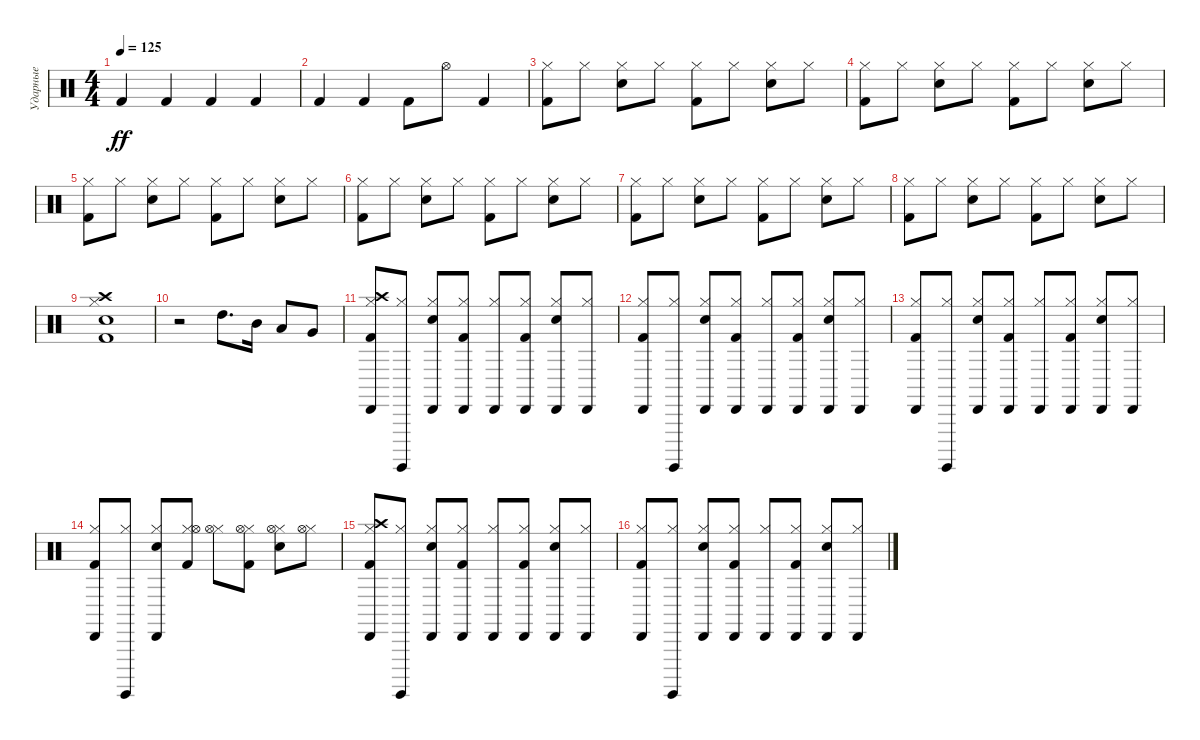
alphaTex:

\track ("Ударные" "Ударные") {instrument percussion}
\staff {score}
\articulation defaults
\ts (4 4)
\tempo 125
\clef neutral
\ks c "Kick (hit) 2".4{dy ff} "Kick (hit) 2".4 "Kick (hit) 2".4 "Kick (hit) 2".4
|
"Kick (hit) 2".4 "Kick (hit) 2".4 "Kick (hit) 2".8 "Hi-Hat (open)".8 "Kick (hit) 2".4 |
("Hi-Hat (closed)" "Kick (hit) 2").8 "Hi-Hat (closed)".8 ("Hi-Hat (closed)" "Snare (hit) 2").8 "Hi-Hat (closed)".8 ("Hi-Hat (closed)" "Kick (hit) 2").8 "Hi-Hat (closed)".8 ("Hi-Hat (closed)" "Snare (hit) 2").8 "Hi-Hat (closed)".8 |
("Hi-Hat (closed)" "Kick (hit) 2").8 "Hi-Hat (closed)".8 ("Hi-Hat (closed)" "Snare (hit) 2").8 "Hi-Hat (closed)".8 ("Hi-Hat (closed)" "Kick (hit) 2").8 "Hi-Hat (closed)".8 ("Hi-Hat (closed)" "Snare (hit) 2").8 "Hi-Hat (closed)".8 |
("Hi-Hat (closed)" "Kick (hit) 2").8 "Hi-Hat (closed)".8 ("Hi-Hat (closed)" "Snare (hit) 2").8 "Hi-Hat (closed)".8 ("Hi-Hat (closed)" "Kick (hit) 2").8 "Hi-Hat (closed)".8 ("Hi-Hat (closed)" "Snare (hit) 2").8 "Hi-Hat (closed)".8 |
("Hi-Hat (closed)" "Kick (hit) 2").8 "Hi-Hat (closed)".8 ("Hi-Hat (closed)" "Snare (hit) 2").8 "Hi-Hat (closed)".8 ("Hi-Hat (closed)" "Kick (hit) 2").8 "Hi-Hat (closed)".8 ("Hi-Hat (closed)" "Snare (hit) 2").8 "Hi-Hat (closed)".8 |
("Hi-Hat (closed)" "Kick (hit) 2").8 "Hi-Hat (closed)".8 ("Hi-Hat (closed)" "Snare (hit) 2").8 "Hi-Hat (closed)".8 ("Hi-Hat (closed)" "Kick (hit) 2").8 "Hi-Hat (closed)".8 ("Hi-Hat (closed)" "Snare (hit) 2").8 "Hi-Hat (closed)".8 |
("Hi-Hat (closed)" "Kick (hit) 2").8 "Hi-Hat (closed)".8 ("Hi-Hat (closed)" "Snare (hit) 2").8 "Hi-Hat (closed)".8 ("Hi-Hat (closed)" "Kick (hit) 2").8 "Hi-Hat (closed)".8 ("Hi-Hat (closed)" "Snare (hit) 2").8 "Hi-Hat (closed)".8 |
("Crash high (hit)" "Hi-Hat (closed)" "Snare (hit) 2" "Kick (hit) 2").1 |
r.2 "High Tom (hit)".8{d} "Mid Tom (hit)".16 "Low Tom (hit)".8 "Very Low Tom (hit)".8 |
("Crash high (hit)" "Hi-Hat (closed)" "Cabasa (hit)" "Kick (hit) 2").8 ("Hi-Hat (closed)" "Surdo (hit)").8 ("Hi-Hat (closed)" "Cabasa (hit)" "Snare (hit) 2").8 ("Hi-Hat (closed)" "Cabasa (hit)" "Kick (hit) 2").8 ("Hi-Hat (closed)" "Cabasa (hit)").8 ("Hi-Hat (closed)" "Cabasa (hit)" "Kick (hit) 2").8 ("Hi-Hat (closed)" "Cabasa (hit)" "Snare (hit) 2").8 ("Hi-Hat (closed)" "Cabasa (hit)").8 |
("Hi-Hat (closed)" "Cabasa (hit)" "Kick (hit) 2").8 ("Hi-Hat (closed)" "Surdo (hit)").8 ("Hi-Hat (closed)" "Cabasa (hit)" "Snare (hit) 2").8 ("Hi-Hat (closed)" "Cabasa (hit)" "Kick (hit) 2").8 ("Hi-Hat (closed)" "Cabasa (hit)").8 ("Hi-Hat (closed)" "Cabasa (hit)" "Kick (hit) 2").8 ("Hi-Hat (closed)" "Cabasa (hit)" "Snare (hit) 2").8 ("Hi-Hat (closed)" "Cabasa (hit)").8 |
("Hi-Hat (closed)" "Cabasa (hit)" "Kick (hit) 2").8 ("Hi-Hat (closed)" "Surdo (hit)").8 ("Hi-Hat (closed)" "Cabasa (hit)" "Snare (hit) 2").8 ("Hi-Hat (closed)" "Cabasa (hit)" "Kick (hit) 2").8 ("Hi-Hat (closed)" "Cabasa (hit)").8 ("Hi-Hat (closed)" "Cabasa (hit)" "Kick (hit) 2").8 ("Hi-Hat (closed)" "Cabasa (hit)" "Snare (hit) 2").8 ("Hi-Hat (closed)" "Cabasa (hit)").8 |
("Hi-Hat (closed)" "Cabasa (hit)" "Kick (hit) 2").8 ("Hi-Hat (closed)" "Surdo (hit)").8 ("Hi-Hat (closed)" "Cabasa (hit)" "Snare (hit) 2").8 ("Hi-Hat (closed)" "Hi-Hat (open)" "Kick (hit) 2").8 ("Hi-Hat (closed)" "Hi-Hat (open)").8 ("Hi-Hat (closed)" "Hi-Hat (open)" "Kick (hit) 2").8 ("Hi-Hat (closed)" "Hi-Hat (open)" "Snare (hit) 2").8 ("Hi-Hat (closed)" "Hi-Hat (open)").8 |
("Crash high (hit)" "Hi-Hat (closed)" "Cabasa (hit)" "Kick (hit) 2").8 ("Hi-Hat (closed)" "Surdo (hit)").8 ("Hi-Hat (closed)" "Cabasa (hit)" "Snare (hit) 2").8 ("Hi-Hat (closed)" "Cabasa (hit)" "Kick (hit) 2").8 ("Hi-Hat (closed)" "Cabasa (hit)").8 ("Hi-Hat (closed)" "Cabasa (hit)" "Kick (hit) 2").8 ("Hi-Hat (closed)" "Cabasa (hit)" "Snare (hit) 2").8 ("Hi-Hat (closed)" "Cabasa (hit)").8 |
("Hi-Hat (closed)" "Cabasa (hit)" "Kick (hit) 2").8 ("Hi-Hat (closed)" "Surdo (hit)").8 ("Hi-Hat (closed)" "Cabasa (hit)" "Snare (hit) 2").8 ("Hi-Hat (closed)" "Cabasa (hit)" "Kick (hit) 2").8 ("Hi-Hat (closed)" "Cabasa (hit)").8 ("Hi-Hat (closed)" "Cabasa (hit)" "Kick (hit) 2").8 ("Hi-Hat (closed)" "Cabasa (hit)" "Snare (hit) 2").8 ("Hi-Hat (closed)" "Cabasa (hit)").8
